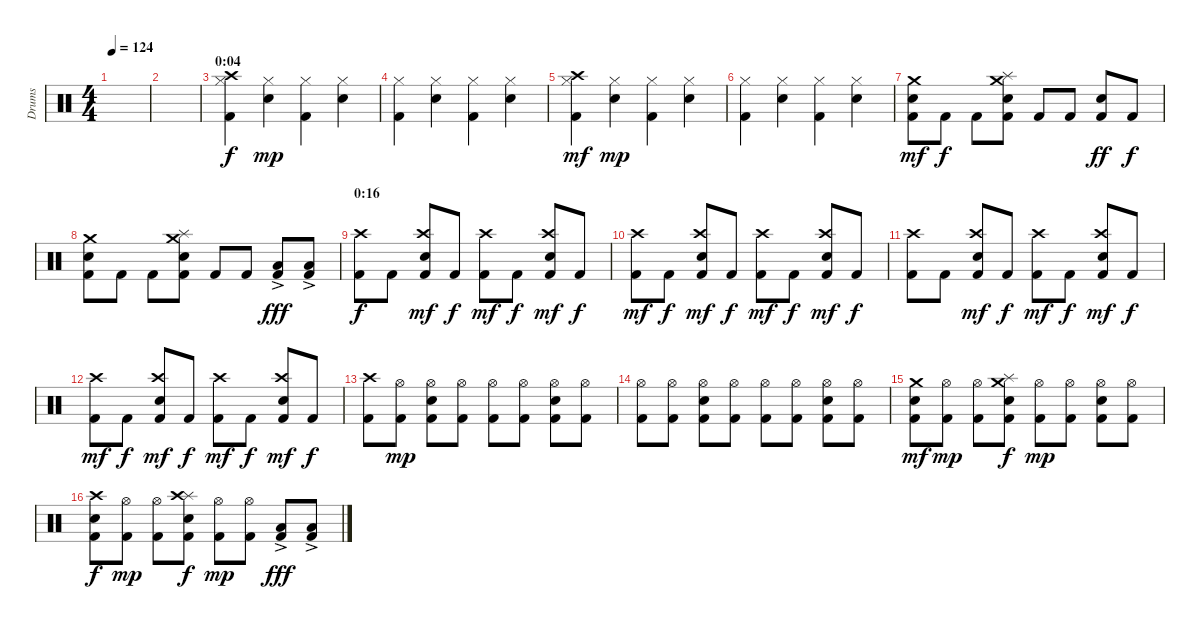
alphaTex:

\track ("Drums" "Drums") {instrument percussion}
\staff {score}
\articulation defaults
\ts (4 4)
\tempo 124
\clef neutral
\ks c
|
|
\section ("" "0:04")
("Kick (hit) 2" "Hi-Hat (closed)" "Crash high (hit)").4 ("Electric Snare (hit)" "Hi-Hat (closed)").4{dy mp} ("Kick (hit) 2" "Hi-Hat (closed)").4 ("Electric Snare (hit)" "Hi-Hat (closed)").4 |
("Kick (hit) 2" "Hi-Hat (closed)").4 ("Electric Snare (hit)" "Hi-Hat (closed)").4 ("Kick (hit) 2" "Hi-Hat (closed)").4 ("Electric Snare (hit)" "Hi-Hat (closed)").4 |
("Kick (hit) 2" "Hi-Hat (closed)" "Crash high (hit)").4{dy mf} ("Electric Snare (hit)" "Hi-Hat (closed)").4{dy mp} ("Kick (hit) 2" "Hi-Hat (closed)").4 ("Electric Snare (hit)" "Hi-Hat (closed)").4 |
("Kick (hit) 2" "Hi-Hat (closed)").4 ("Electric Snare (hit)" "Hi-Hat (closed)").4 ("Kick (hit) 2" "Hi-Hat (closed)").4 ("Electric Snare (hit)" "Hi-Hat (closed)").4 |
("Kick (hit) 2" "Electric Snare (hit)" "Crash medium (hit)").8{dy mf} "Kick (hit) 2".8{dy f} "Kick (hit) 2".8 ("Kick (hit) 2" "Electric Snare (hit)" "Splash (hit)" "Crash medium (hit)").8 "Kick (hit) 2".8 "Kick (hit) 2".8 ("Kick (hit) 2" "Electric Snare (hit)").8{dy ff} "Kick (hit) 2".8{dy f} |
("Kick (hit) 2" "Electric Snare (hit)" "Crash medium (hit)").8 "Kick (hit) 2".8 "Kick (hit) 2".8 ("Kick (hit) 2" "Electric Snare (hit)" "Splash (hit)" "Crash medium (hit)").8 "Kick (hit) 2".8 "Kick (hit) 2".8 ("Kick (hit) 2" "Low Tom (hit)"{ac}).8{dy fff} ("Kick (hit) 2" "Low Tom (hit)"{ac}).8 |
\section ("" "0:16")
("Kick (hit) 2" "Crash high (hit)").8{dy f} "Kick (hit) 2".8 ("Kick (hit) 2" "Electric Snare (hit)" "Crash high (hit)").8{dy mf} "Kick (hit) 2".8{dy f} ("Kick (hit) 2" "Crash high (hit)").8{dy mf} "Kick (hit) 2".8{dy f} ("Kick (hit) 2" "Electric Snare (hit)" "Crash high (hit)").8{dy mf} "Kick (hit) 2".8{dy f} |
("Kick (hit) 2" "Crash high (hit)").8{dy mf} "Kick (hit) 2".8{dy f} ("Kick (hit) 2" "Electric Snare (hit)" "Crash high (hit)").8{dy mf} "Kick (hit) 2".8{dy f} ("Kick (hit) 2" "Crash high (hit)").8{dy mf} "Kick (hit) 2".8{dy f} ("Kick (hit) 2" "Electric Snare (hit)" "Crash high (hit)").8{dy mf} "Kick (hit) 2".8{dy f} |
("Kick (hit) 2" "Crash high (hit)").8 "Kick (hit) 2".8 ("Kick (hit) 2" "Electric Snare (hit)" "Crash high (hit)").8{dy mf} "Kick (hit) 2".8{dy f} ("Kick (hit) 2" "Crash high (hit)").8{dy mf} "Kick (hit) 2".8{dy f} ("Kick (hit) 2" "Electric Snare (hit)" "Crash high (hit)").8{dy mf} "Kick (hit) 2".8{dy f} |
("Kick (hit) 2" "Crash high (hit)").8{dy mf} "Kick (hit) 2".8{dy f} ("Kick (hit) 2" "Electric Snare (hit)" "Crash high (hit)").8{dy mf} "Kick (hit) 2".8{dy f} ("Kick (hit) 2" "Crash high (hit)").8{dy mf} "Kick (hit) 2".8{dy f} ("Kick (hit) 2" "Electric Snare (hit)" "Crash high (hit)").8{dy mf} "Kick (hit) 2".8{dy f} |
("Kick (hit) 2" "Crash high (hit)").8 ("Kick (hit) 2" "Hi-Hat (open)").8{dy mp} ("Kick (hit) 2" "Electric Snare (hit)" "Hi-Hat (open)").8 ("Kick (hit) 2" "Hi-Hat (open)").8 ("Kick (hit) 2" "Hi-Hat (open)").8 ("Kick (hit) 2" "Hi-Hat (open)").8 ("Kick (hit) 2" "Electric Snare (hit)" "Hi-Hat (open)").8 ("Kick (hit) 2" "Hi-Hat (open)").8 |
("Kick (hit) 2" "Hi-Hat (open)").8 ("Kick (hit) 2" "Hi-Hat (open)").8 ("Kick (hit) 2" "Electric Snare (hit)" "Hi-Hat (open)").8 ("Kick (hit) 2" "Hi-Hat (open)").8 ("Kick (hit) 2" "Hi-Hat (open)").8 ("Kick (hit) 2" "Hi-Hat (open)").8 ("Kick (hit) 2" "Electric Snare (hit)" "Hi-Hat (open)").8 ("Kick (hit) 2" "Hi-Hat (open)").8 |
("Kick (hit) 2" "Electric Snare (hit)" "Crash medium (hit)").8{dy mf} ("Kick (hit) 2" "Hi-Hat (open)").8{dy mp} ("Kick (hit) 2" "Hi-Hat (open)").8 ("Kick (hit) 2" "Electric Snare (hit)" "Splash (hit)" "Crash medium (hit)").8{dy f} ("Kick (hit) 2" "Hi-Hat (open)").8{dy mp} ("Kick (hit) 2" "Hi-Hat (open)").8 ("Kick (hit) 2" "Electric Snare (hit)" "Hi-Hat (open)").8 ("Kick (hit) 2" "Hi-Hat (open)").8 |
("Kick (hit) 2" "Electric Snare (hit)" "Crash high (hit)").8{dy f} ("Kick (hit) 2" "Hi-Hat (open)").8{dy mp} ("Kick (hit) 2" "Hi-Hat (open)").8 ("Kick (hit) 2" "Electric Snare (hit)" "Splash (hit)" "Crash high (hit)").8{dy f} ("Kick (hit) 2" "Hi-Hat (open)").8{dy mp} ("Kick (hit) 2" "Hi-Hat (open)").8 ("Kick (hit) 2" "Low Tom (hit)"{ac}).8{dy fff} ("Kick (hit) 2" "Low Tom (hit)"{ac}).8
